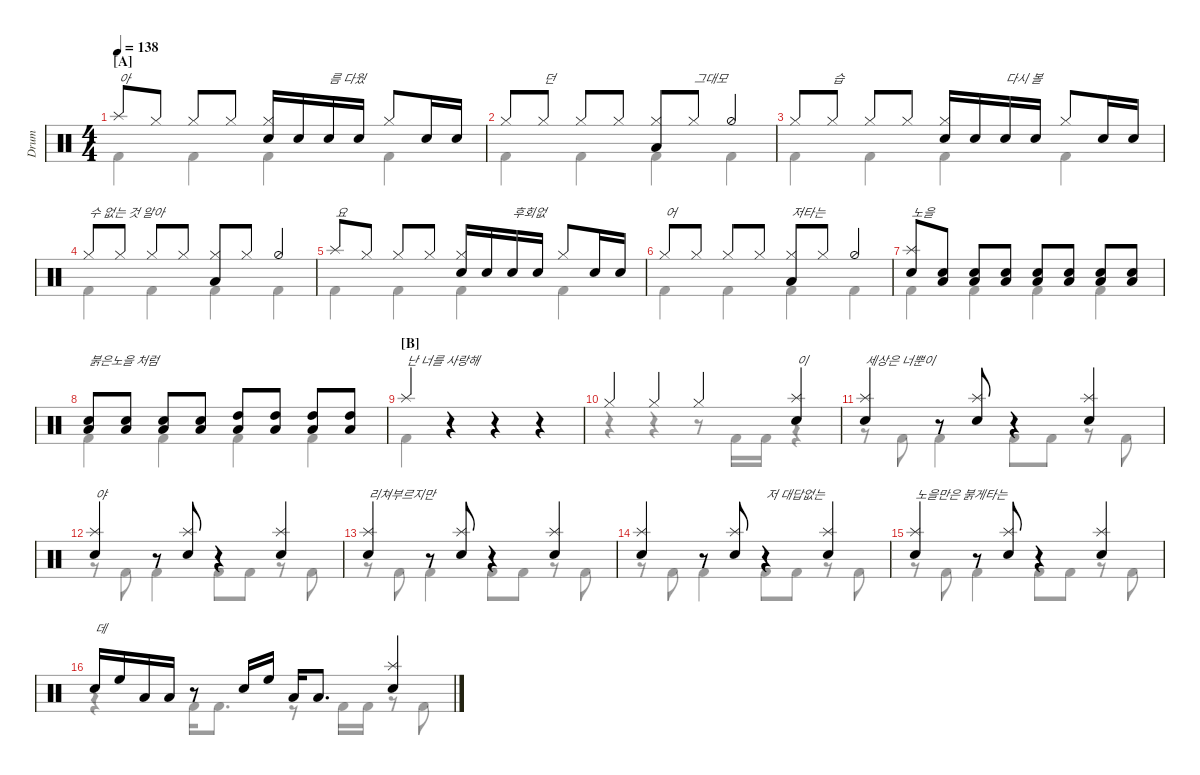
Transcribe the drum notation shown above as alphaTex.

\defaultSystemsLayout 4
\hideDynamics
\bracketExtendMode nobrackets
\track ("Drumkit" "Drum") {instrument percussion}
\staff {score}
\articulation defaults
\voice
\ts (4 4)
\section ("A" "")
\tempo 138
\clef neutral
\ks c "Splash (hit)".8{txt "아" dy mf beam Up} "Hi-Hat (closed)".8{beam Up} "Hi-Hat (closed)".8{beam Up} "Hi-Hat (closed)".8{beam Up}
("Hi-Hat (closed)" "Snare (hit) 2").16{beam Up} "Snare (hit) 2".16{beam Up} "Snare (hit) 2".16{txt "름 다웠" beam Up} "Snare (hit) 2".16{beam Up} "Hi-Hat (closed)".8{beam Up} "Snare (hit) 2".16{beam Up} "Snare (hit) 2".16{beam Up} |
"Hi-Hat (closed)".8{beam Up} "Hi-Hat (closed)".8{txt "던" beam Up} "Hi-Hat (closed)".8{beam Up} "Hi-Hat (closed)".8{beam Up} ("Hi-Hat (closed)" "Low Tom (hit)").8{beam Up} "Hi-Hat (closed)".8{txt "그대모" beam Up} "Hi-Hat (half)".4{beam Up} |
"Hi-Hat (closed)".8{beam Up} "Hi-Hat (closed)".8{txt "습" beam Up} "Hi-Hat (closed)".8{beam Up} "Hi-Hat (closed)".8{beam Up} ("Hi-Hat (closed)" "Snare (hit) 2").16{beam Up} "Snare (hit) 2".16{beam Up} "Snare (hit) 2".16{txt "다시 볼" beam Up} "Snare (hit) 2".16{beam Up} "Hi-Hat (closed)".8{beam Up} "Snare (hit) 2".16{beam Up} "Snare (hit) 2".16{beam Up} |
"Hi-Hat (closed)".8{txt "수 없는 것 알아" beam Up} "Hi-Hat (closed)".8{beam Up} "Hi-Hat (closed)".8{beam Up} "Hi-Hat (closed)".8{beam Up} ("Hi-Hat (closed)" "Low Tom (hit)").8{beam Up} "Hi-Hat (closed)".8{beam Up} "Hi-Hat (half)".4{beam Up} |
"Splash (hit)".8{txt "요" beam Up} "Hi-Hat (closed)".8{beam Up} "Hi-Hat (closed)".8{beam Up} "Hi-Hat (closed)".8{beam Up} ("Hi-Hat (closed)" "Snare (hit) 2").16{beam Up} "Snare (hit) 2".16{beam Up} "Snare (hit) 2".16{txt "후회없" beam Up} "Snare (hit) 2".16{beam Up} "Hi-Hat (closed)".8{beam Up} "Snare (hit) 2".16{beam Up} "Snare (hit) 2".16{beam Up} |
"Hi-Hat (closed)".8{txt "어" beam Up} "Hi-Hat (closed)".8{beam Up} "Hi-Hat (closed)".8{beam Up} "Hi-Hat (closed)".8{beam Up} ("Hi-Hat (closed)" "Low Tom (hit)").8{txt "저타는" beam Up} "Hi-Hat (closed)".8{beam Up} "Hi-Hat (half)".4{beam Up} |
("Splash (hit)" "Snare (hit) 2").8{txt "노을" beam Up} ("Snare (hit) 2" "Low Tom (hit)").8{beam Up} ("Snare (hit) 2" "Low Tom (hit)").8{beam Up} ("Snare (hit) 2" "Low Tom (hit)").8{beam Up} ("Snare (hit) 2" "Low Tom (hit)").8{beam Up} ("Snare (hit) 2" "Low Tom (hit)").8{beam Up} ("Snare (hit) 2" "Low Tom (hit)").8{beam Up} ("Snare (hit) 2" "Low Tom (hit)").8{beam Up} |
("Snare (hit) 2" "Low Tom (hit)").8{txt "붉은노을 처럼" beam Up} ("Snare (hit) 2" "Low Tom (hit)").8{beam Up} ("Snare (hit) 2" "Low Tom (hit)").8{beam Up} ("Snare (hit) 2" "Low Tom (hit)").8{beam Up} ("High Tom (hit)" "Low Tom (hit)").8{beam Up} ("High Tom (hit)" "Low Tom (hit)").8{beam Up} ("High Tom (hit)" "Low Tom (hit)").8{beam Up} ("High Tom (hit)" "Low Tom (hit)").8{beam Up} |
\section ("B" "")
"Splash (hit)".4{txt "난 너를 사랑해" beam Up} r.4{beam Up} r.4{beam Up} r.4{beam Up} |
"Hi-Hat (closed)".4{beam Up} "Hi-Hat (closed)".4{beam Up} "Hi-Hat (closed)".4{beam Up} ("Splash (hit)" "Snare (hit) 2").4{txt "이" beam Up} |
("Splash (hit)" "Snare (hit) 2").4{txt "세상은 너뿐이" beam Up} r.8{beam Up} ("Splash (hit)" "Snare (hit) 2").8{beam Up} r.4{beam Up} ("Splash (hit)" "Snare (hit) 2").4{beam Up} |
("Splash (hit)" "Snare (hit) 2").4{txt "야" beam Up} r.8{beam Up} ("Splash (hit)" "Snare (hit) 2").8{beam Up} r.4{beam Up} ("Splash (hit)" "Snare (hit) 2").4{beam Up} |
("Splash (hit)" "Snare (hit) 2").4{txt "리쳐부르지만" beam Up} r.8{beam Up} ("Splash (hit)" "Snare (hit) 2").8{beam Up} r.4{beam Up} ("Splash (hit)" "Snare (hit) 2").4{beam Up} |
("Splash (hit)" "Snare (hit) 2").4{beam Up} r.8{beam Up} ("Splash (hit)" "Snare (hit) 2").8{beam Up} r.4{txt "저 대답없는" beam Up} ("Splash (hit)" "Snare (hit) 2").4{beam Up} |
("Splash (hit)" "Snare (hit) 2").4{txt "노을만은 붉게타는" beam Up} r.8{beam Up} ("Splash (hit)" "Snare (hit) 2").8{beam Up} r.4{beam Up} ("Splash (hit)" "Snare (hit) 2").4{beam Up} |
"Snare (hit) 2".16{txt "데" beam Up} "High Floor Tom (hit)".16{beam Up} "Low Tom (hit)".16{beam Up} "Low Tom (hit)".16{beam Up} r.8{beam Up} "Snare (hit) 2".16{beam Up} "High Floor Tom (hit)".16{beam Up} "Low Tom (hit)".16{beam Up} "Low Tom (hit)".8{d beam Up} ("Snare (hit) 2" "Splash (hit)").4{beam Up}
\voice
\clef neutral
\ottava regular
\simile none
\ks c
|
|
|
|
|
|
|
|
|
|
|
|
|
|
|
\voice
\clef neutral
\ottava regular
\simile none
\ks c "Kick (hit) 2".4{dy mf beam Down} "Kick (hit) 2".4{beam Down} "Kick (hit) 2".4{beam Down} "Kick (hit) 2".4{beam Down}
|
"Kick (hit) 2".4{beam Down} "Kick (hit) 2".4{beam Down} "Kick (hit) 2".4{beam Down} "Kick (hit) 2".4{beam Down} |
"Kick (hit) 2".4{beam Down} "Kick (hit) 2".4{beam Down} "Kick (hit) 2".4{beam Down} "Kick (hit) 2".4{beam Down} |
"Kick (hit) 2".4{beam Down} "Kick (hit) 2".4{beam Down} "Kick (hit) 2".4{beam Down} "Kick (hit) 2".4{beam Down} |
"Kick (hit) 2".4{beam Down} "Kick (hit) 2".4{beam Down} "Kick (hit) 2".4{beam Down} "Kick (hit) 2".4{beam Down} |
"Kick (hit) 2".4{beam Down} "Kick (hit) 2".4{beam Down} "Kick (hit) 2".4{beam Down} "Kick (hit) 2".4{beam Down} |
"Kick (hit) 2".4{beam Down} "Kick (hit) 2".4{beam Down} "Kick (hit) 2".4{beam Down} "Kick (hit) 2".4{beam Down} |
"Kick (hit) 2".4{beam Down} "Kick (hit) 2".4{beam Down} "Kick (hit) 2".4{beam Down} "Kick (hit) 2".4{beam Down} |
"Kick (hit) 2".4{beam Down} r.4{beam Down} r.4{beam Down} r.4{beam Down} |
r.4{beam Down} r.4{beam Down} r.8{beam Down} "Kick (hit) 2".16{beam Down} "Kick (hit) 2".16{beam Down} r.4{beam Down} |
r.8{beam Down} "Kick (hit) 2".8{beam Down} "Kick (hit) 2".4{beam Down} "Kick (hit) 2".8{beam Down} "Kick (hit) 2".8{beam Down} r.8{beam Down} "Kick (hit) 2".8{beam Down} |
r.8{beam Down} "Kick (hit) 2".8{beam Down} "Kick (hit) 2".4{beam Down} "Kick (hit) 2".8{beam Down} "Kick (hit) 2".8{beam Down} r.8{beam Down} "Kick (hit) 2".8{beam Down} |
r.8{beam Down} "Kick (hit) 2".8{beam Down} "Kick (hit) 2".4{beam Down} "Kick (hit) 2".8{beam Down} "Kick (hit) 2".8{beam Down} r.8{beam Down} "Kick (hit) 2".8{beam Down} |
r.8{beam Down} "Kick (hit) 2".8{beam Down} "Kick (hit) 2".4{beam Down} "Kick (hit) 2".8{beam Down} "Kick (hit) 2".8{beam Down} r.8{beam Down} "Kick (hit) 2".8{beam Down} |
r.8{beam Down} "Kick (hit) 2".8{beam Down} "Kick (hit) 2".4{beam Down} "Kick (hit) 2".8{beam Down} "Kick (hit) 2".8{beam Down} r.8{beam Down} "Kick (hit) 2".8{beam Down} |
r.4{beam Down} "Kick (hit) 2".16{beam Down} "Kick (hit) 2".8{d beam Down} r.8{beam Down} "Kick (hit) 2".16{beam Down} "Kick (hit) 2".16{beam Down} r.8{beam Down} "Kick (hit) 2".8{beam Down}
